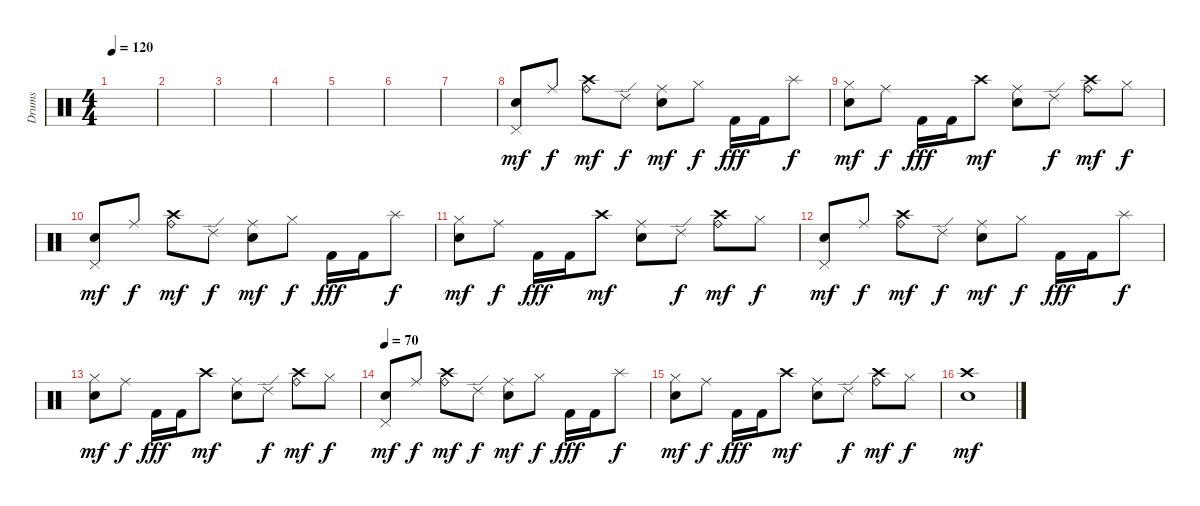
\track ("Drums" "Drums") {instrument percussion}
\staff {score}
\articulation defaults
\ts (4 4)
\tempo 120
\clef neutral
\ks c
|
|
|
|
|
|
|
("Pedal Hi-Hat (hit)" "Electric Snare (hit)").8{dy mf volume 12} "Ride (middle)".8{dy f} ("Ride (bell)" "Crash high (hit)").8{dy mf} "Ride (edge) 2".8{dy f} ("Ride (middle)" "Electric Snare (hit)").8{dy mf} "Hi-Hat (closed)".8{dy f} "Kick (hit) 2".16{dy fff} "Kick (hit) 2".16 "Splash (hit)".8{dy f} |
("Hi-Hat (closed)" "Electric Snare (hit)").8{dy mf} "Ride (middle)".8{dy f} "Kick (hit) 2".16{dy fff} "Kick (hit) 2".16 "Crash high (hit)".8{dy mf} ("Ride (middle)" "Electric Snare (hit)").8 "Ride (edge) 2".8{dy f} ("Ride (bell)" "Crash high (hit)").8{dy mf} "Hi-Hat (closed)".8{dy f} |
("Pedal Hi-Hat (hit)" "Electric Snare (hit)").8{dy mf} "Ride (middle)".8{dy f} ("Ride (bell)" "Crash high (hit)").8{dy mf} "Ride (edge) 2".8{dy f} ("Ride (middle)" "Electric Snare (hit)").8{dy mf} "Hi-Hat (closed)".8{dy f} "Kick (hit) 2".16{dy fff} "Kick (hit) 2".16 "Splash (hit)".8{dy f} |
("Hi-Hat (closed)" "Electric Snare (hit)").8{dy mf} "Ride (middle)".8{dy f} "Kick (hit) 2".16{dy fff} "Kick (hit) 2".16 "Crash high (hit)".8{dy mf} ("Ride (middle)" "Electric Snare (hit)").8 "Ride (edge) 2".8{dy f} ("Ride (bell)" "Crash high (hit)").8{dy mf} "Hi-Hat (closed)".8{dy f} |
("Pedal Hi-Hat (hit)" "Electric Snare (hit)").8{dy mf} "Ride (middle)".8{dy f} ("Ride (bell)" "Crash high (hit)").8{dy mf} "Ride (edge) 2".8{dy f} ("Ride (middle)" "Electric Snare (hit)").8{dy mf} "Hi-Hat (closed)".8{dy f} "Kick (hit) 2".16{dy fff} "Kick (hit) 2".16 "Splash (hit)".8{dy f} |
("Hi-Hat (closed)" "Electric Snare (hit)").8{dy mf} "Ride (middle)".8{dy f} "Kick (hit) 2".16{dy fff} "Kick (hit) 2".16 "Crash high (hit)".8{dy mf} ("Ride (middle)" "Electric Snare (hit)").8 "Ride (edge) 2".8{dy f} ("Ride (bell)" "Crash high (hit)").8{dy mf} "Hi-Hat (closed)".8{dy f} |
\tempo 70
("Pedal Hi-Hat (hit)" "Electric Snare (hit)").8{dy mf} "Ride (middle)".8{dy f} ("Ride (bell)" "Crash high (hit)").8{dy mf} "Ride (edge) 2".8{dy f} ("Ride (middle)" "Electric Snare (hit)").8{dy mf} "Hi-Hat (closed)".8{dy f} "Kick (hit) 2".16{dy fff} "Kick (hit) 2".16 "Splash (hit)".8{dy f} |
("Hi-Hat (closed)" "Electric Snare (hit)").8{dy mf} "Ride (middle)".8{dy f} "Kick (hit) 2".16{dy fff} "Kick (hit) 2".16 "Crash high (hit)".8{dy mf} ("Ride (middle)" "Electric Snare (hit)").8 "Ride (edge) 2".8{dy f} ("Ride (bell)" "Crash high (hit)").8{dy mf} "Hi-Hat (closed)".8{dy f} |
("Crash high (hit)" "Electric Snare (hit)").1{dy mf}
